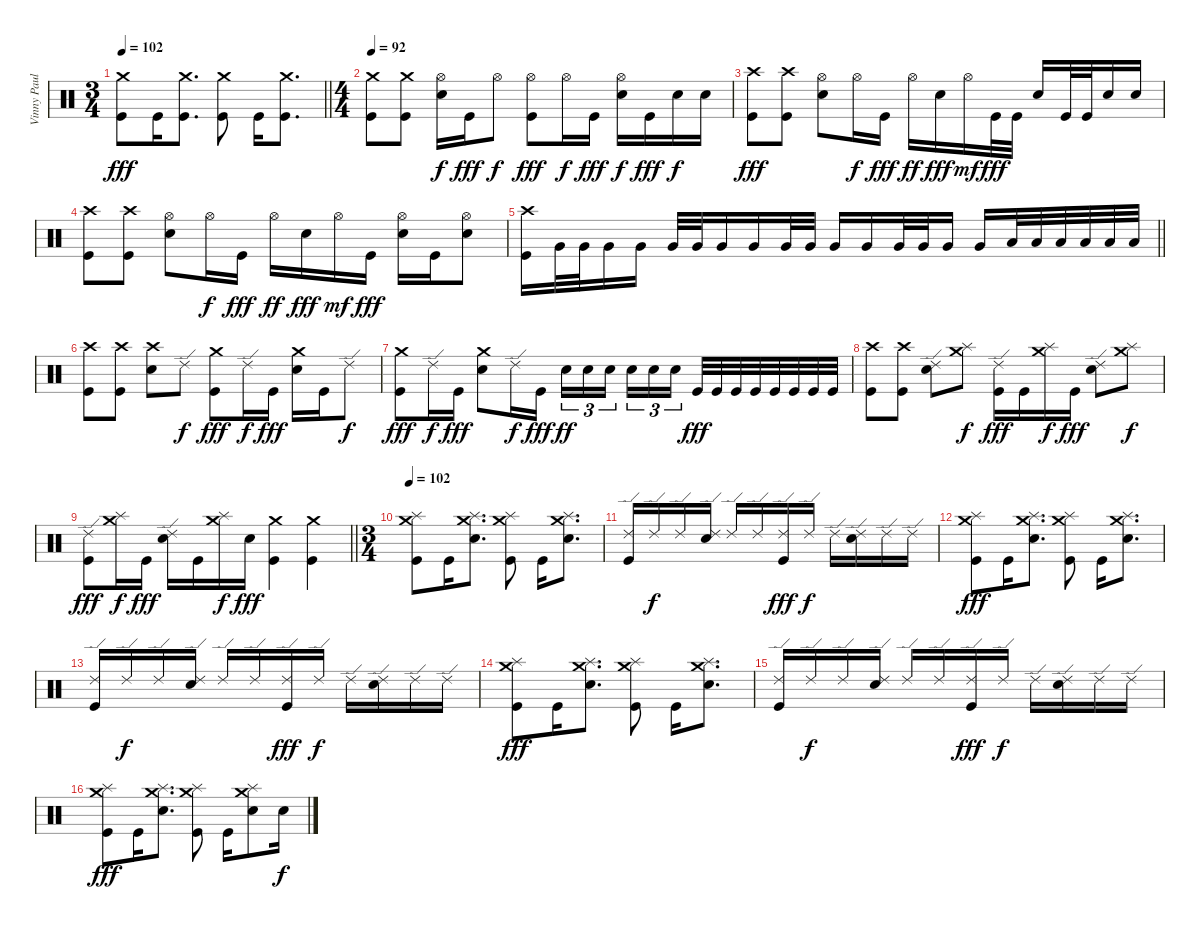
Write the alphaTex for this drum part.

\track ("Vinny Paul" "Vinny Paul") {instrument percussion}
\staff {score}
\articulation defaults
\ts (3 4)
\tempo 102
\clef neutral
\barLineRight lightlight
\ks c
("Crash medium (hit)" "Kick (hit)").8{dy fff} "Kick (hit)".16 ("Crash medium (hit)" "Kick (hit)").8{d} ("Crash medium (hit)" "Kick (hit)").8 "Kick (hit)".16 ("Crash medium (hit)" "Kick (hit)").8{d} |
\ts (4 4)
\section ("" "")
\tempo 92
("Crash medium (hit)" "Kick (hit)").8 ("Crash medium (hit)" "Kick (hit)").8 ("Hi-Hat (open)" "Electric Snare (hit)").16{dy f} "Kick (hit)".16{dy fff} "Hi-Hat (open)".8{dy f} ("Hi-Hat (open)" "Kick (hit)").8{dy fff} "Hi-Hat (open)".16{dy f} "Kick (hit)".16{dy fff} ("Hi-Hat (open)" "Electric Snare (hit)").16{dy f} "Kick (hit)".16{dy fff} "Electric Snare (hit)".16{dy f} "Electric Snare (hit)".16 |
("Crash high (hit)" "Kick (hit)").8{dy fff} ("Crash high (hit)" "Kick (hit)").8 ("Hi-Hat (open)" "Electric Snare (hit)").8 "Hi-Hat (open)".16{dy f} "Kick (hit)".16{dy fff} "Hi-Hat (open)".16{dy ff} "Electric Snare (hit)".16{dy fff} "Hi-Hat (open)".16{dy mf} "Kick (hit)".32{dy fff} "Kick (hit)".32 "Electric Snare (hit)".16 "Kick (hit)".32 "Kick (hit)".32 "Electric Snare (hit)".16 "Electric Snare (hit)".16 |
("Crash high (hit)" "Kick (hit)").8 ("Crash high (hit)" "Kick (hit)").8 ("Hi-Hat (open)" "Electric Snare (hit)").8 "Hi-Hat (open)".16{dy f} "Kick (hit)".16{dy fff} "Hi-Hat (open)".16{dy ff} "Electric Snare (hit)".16{dy fff} "Hi-Hat (open)".16{dy mf} "Kick (hit)".16{dy fff} ("Hi-Hat (open)" "Electric Snare (hit)").16 "Kick (hit)".16 ("Hi-Hat (open)" "Electric Snare (hit)").8 |
\barLineRight lightlight
("Crash high (hit)" "Kick (hit)").16 "Very Low Tom (hit)".32 "Very Low Tom (hit)".32 "Very Low Tom (hit)".16 "Very Low Tom (hit)".16 "Very Low Tom (hit)".32 "Very Low Tom (hit)".32 "Very Low Tom (hit)".16 "Very Low Tom (hit)".16 "Very Low Tom (hit)".32 "Very Low Tom (hit)".32 "Very Low Tom (hit)".16 "Very Low Tom (hit)".16 "Very Low Tom (hit)".32 "Very Low Tom (hit)".32 "Very Low Tom (hit)".16 "Very Low Tom (hit)".16 "Low Floor Tom (hit)".32 "Low Floor Tom (hit)".32 "Low Floor Tom (hit)".32 "Low Floor Tom (hit)".32 "Low Floor Tom (hit)".32 "Low Floor Tom (hit)".32 |
\section ("" "")
("Crash high (hit)" "Kick (hit)").8 ("Crash high (hit)" "Kick (hit)").8 ("Crash high (hit)" "Electric Snare (hit)").8 "Ride (edge) 2".8{dy f} ("Crash medium (hit)" "Kick (hit)").8{dy fff} "Ride (edge) 2".16{dy f} "Kick (hit)".16{dy fff} ("Crash medium (hit)" "Electric Snare (hit)").16 "Kick (hit)".16 "Ride (edge) 2".8{dy f} |
("Crash medium (hit)" "Kick (hit)").8{dy fff} "Ride (edge) 2".16{dy f} "Kick (hit)".16{dy fff} ("Crash medium (hit)" "Electric Snare (hit)").8 "Ride (edge) 2".16{dy f} "Kick (hit)".16{dy fff} "Electric Snare (hit)".16{tu (3 2) dy ff} "Electric Snare (hit)".16{tu (3 2)} "Electric Snare (hit)".16{tu (3 2) beam splitsecondary} "Electric Snare (hit)".16{tu (3 2)} "Electric Snare (hit)".16{tu (3 2)} "Electric Snare (hit)".16{tu (3 2)} "Kick (hit)".32{dy fff} "Kick (hit)".32 "Kick (hit)".32 "Kick (hit)".32 "Kick (hit)".32 "Kick (hit)".32 "Kick (hit)".32 "Kick (hit)".32 |
("Crash high (hit)" "Kick (hit)").8 ("Crash high (hit)" "Kick (hit)").8 ("Ride (edge) 2" "Electric Snare (hit)").8 ("Crash medium (hit)" "Splash (hit)").8{dy f} ("Ride (edge) 2" "Kick (hit)").16{dy fff} "Kick (hit)".16 ("Crash medium (hit)" "Splash (hit)").16{dy f} "Kick (hit)".16{dy fff} ("Ride (edge) 2" "Electric Snare (hit)").8 ("Crash medium (hit)" "Splash (hit)").8{dy f} |
\barLineRight lightlight
("Ride (edge) 2" "Kick (hit)").8{dy fff} ("Crash medium (hit)" "Splash (hit)").16{dy f} "Kick (hit)".16{dy fff} ("Ride (edge) 2" "Electric Snare (hit)").16 "Kick (hit)".16 ("Crash medium (hit)" "Splash (hit)").16{dy f} "Electric Snare (hit)".16{dy fff} ("Crash medium (hit)" "Kick (hit)").4 ("Crash medium (hit)" "Kick (hit)").4 |
\ts (3 4)
\section ("" "")
\tempo 102
("Crash medium (hit)" "Splash (hit)" "Kick (hit)").8 "Kick (hit)".16 ("Crash medium (hit)" "Splash (hit)" "Electric Snare (hit)").8{d} ("Crash medium (hit)" "Splash (hit)" "Kick (hit)").8 "Kick (hit)".16 ("Crash medium (hit)" "Splash (hit)" "Electric Snare (hit)").8{d} |
("Ride (edge) 2" "Kick (hit)").16 "Ride (edge) 2".16{dy f} "Ride (edge) 2".16 ("Ride (edge) 2" "Electric Snare (hit)").16 "Ride (edge) 2".16 "Ride (edge) 2".16 ("Ride (edge) 2" "Kick (hit)").16{dy fff} "Ride (edge) 2".16{dy f} "Ride (edge) 2".16 ("Ride (edge) 2" "Electric Snare (hit)").16 "Ride (edge) 2".16 "Ride (edge) 2".16 |
("Crash medium (hit)" "Splash (hit)" "Kick (hit)").8{dy fff} "Kick (hit)".16 ("Crash medium (hit)" "Splash (hit)" "Electric Snare (hit)").8{d} ("Crash medium (hit)" "Splash (hit)" "Kick (hit)").8 "Kick (hit)".16 ("Crash medium (hit)" "Splash (hit)" "Electric Snare (hit)").8{d} |
("Ride (edge) 2" "Kick (hit)").16 "Ride (edge) 2".16{dy f} "Ride (edge) 2".16 ("Ride (edge) 2" "Electric Snare (hit)").16 "Ride (edge) 2".16 "Ride (edge) 2".16 ("Ride (edge) 2" "Kick (hit)").16{dy fff} "Ride (edge) 2".16{dy f} "Ride (edge) 2".16 ("Ride (edge) 2" "Electric Snare (hit)").16 "Ride (edge) 2".16 "Ride (edge) 2".16 |
("Crash medium (hit)" "Splash (hit)" "Kick (hit)").8{dy fff} "Kick (hit)".16 ("Crash medium (hit)" "Splash (hit)" "Electric Snare (hit)").8{d} ("Crash medium (hit)" "Splash (hit)" "Kick (hit)").8 "Kick (hit)".16 ("Crash medium (hit)" "Splash (hit)" "Electric Snare (hit)").8{d} |
("Ride (edge) 2" "Kick (hit)").16 "Ride (edge) 2".16{dy f} "Ride (edge) 2".16 ("Ride (edge) 2" "Electric Snare (hit)").16 "Ride (edge) 2".16 "Ride (edge) 2".16 ("Ride (edge) 2" "Kick (hit)").16{dy fff} "Ride (edge) 2".16{dy f} "Ride (edge) 2".16 ("Ride (edge) 2" "Electric Snare (hit)").16 "Ride (edge) 2".16 "Ride (edge) 2".16 |
("Crash medium (hit)" "Splash (hit)" "Kick (hit)").8{dy fff} "Kick (hit)".16 ("Crash medium (hit)" "Splash (hit)" "Electric Snare (hit)").8{d} ("Crash medium (hit)" "Splash (hit)" "Kick (hit)").8 "Kick (hit)".16 ("Crash medium (hit)" "Splash (hit)" "Electric Snare (hit)").8 "Electric Snare (hit)".16{dy f}
